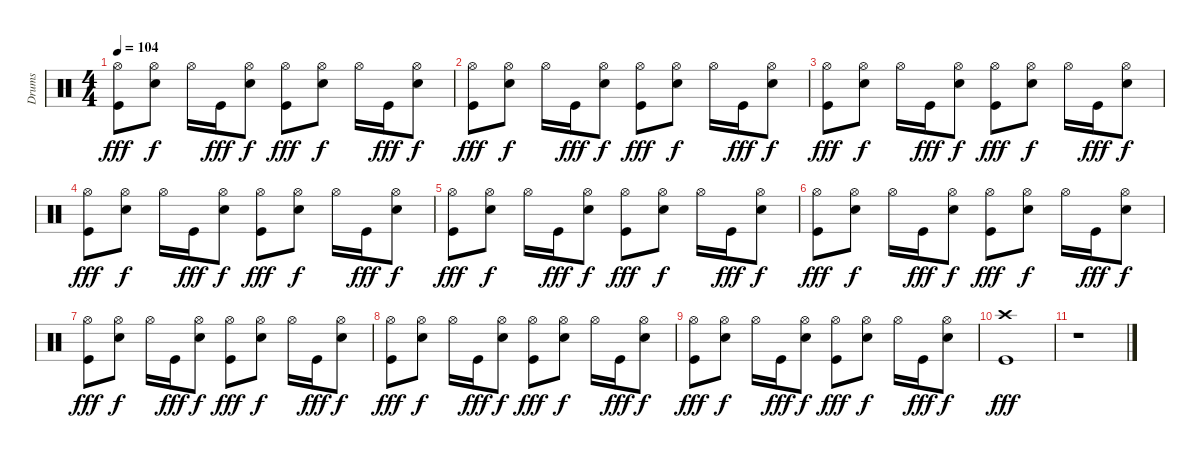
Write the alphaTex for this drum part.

\track ("Drums" "Drums") {instrument percussion}
\staff {score}
\articulation defaults
\ts (4 4)
\tempo 104
\clef neutral
\ks c
("Hi-Hat (open)" "Kick (hit)").8{dy fff} ("Hi-Hat (open)" "Snare (hit) 2").8{dy f} "Hi-Hat (open)".16 "Kick (hit)".16{dy fff} ("Hi-Hat (open)" "Snare (hit) 2").8{dy f} ("Hi-Hat (open)" "Kick (hit)").8{dy fff} ("Hi-Hat (open)" "Snare (hit) 2").8{dy f} "Hi-Hat (open)".16 "Kick (hit)".16{dy fff} ("Hi-Hat (open)" "Snare (hit) 2").8{dy f} |
("Hi-Hat (open)" "Kick (hit)").8{dy fff} ("Hi-Hat (open)" "Snare (hit) 2").8{dy f} "Hi-Hat (open)".16 "Kick (hit)".16{dy fff} ("Hi-Hat (open)" "Snare (hit) 2").8{dy f} ("Hi-Hat (open)" "Kick (hit)").8{dy fff} ("Hi-Hat (open)" "Snare (hit) 2").8{dy f} "Hi-Hat (open)".16 "Kick (hit)".16{dy fff} ("Hi-Hat (open)" "Snare (hit) 2").8{dy f} |
("Hi-Hat (open)" "Kick (hit)").8{dy fff} ("Hi-Hat (open)" "Snare (hit) 2").8{dy f} "Hi-Hat (open)".16 "Kick (hit)".16{dy fff} ("Hi-Hat (open)" "Snare (hit) 2").8{dy f} ("Hi-Hat (open)" "Kick (hit)").8{dy fff} ("Hi-Hat (open)" "Snare (hit) 2").8{dy f} "Hi-Hat (open)".16 "Kick (hit)".16{dy fff} ("Hi-Hat (open)" "Snare (hit) 2").8{dy f} |
("Hi-Hat (open)" "Kick (hit)").8{dy fff} ("Hi-Hat (open)" "Snare (hit) 2").8{dy f} "Hi-Hat (open)".16 "Kick (hit)".16{dy fff} ("Hi-Hat (open)" "Snare (hit) 2").8{dy f} ("Hi-Hat (open)" "Kick (hit)").8{dy fff} ("Hi-Hat (open)" "Snare (hit) 2").8{dy f} "Hi-Hat (open)".16 "Kick (hit)".16{dy fff} ("Hi-Hat (open)" "Snare (hit) 2").8{dy f} |
("Hi-Hat (open)" "Kick (hit)").8{dy fff} ("Hi-Hat (open)" "Snare (hit) 2").8{dy f} "Hi-Hat (open)".16 "Kick (hit)".16{dy fff} ("Hi-Hat (open)" "Snare (hit) 2").8{dy f} ("Hi-Hat (open)" "Kick (hit)").8{dy fff} ("Hi-Hat (open)" "Snare (hit) 2").8{dy f} "Hi-Hat (open)".16 "Kick (hit)".16{dy fff} ("Hi-Hat (open)" "Snare (hit) 2").8{dy f} |
("Hi-Hat (open)" "Kick (hit)").8{dy fff} ("Hi-Hat (open)" "Snare (hit) 2").8{dy f} "Hi-Hat (open)".16 "Kick (hit)".16{dy fff} ("Hi-Hat (open)" "Snare (hit) 2").8{dy f} ("Hi-Hat (open)" "Kick (hit)").8{dy fff} ("Hi-Hat (open)" "Snare (hit) 2").8{dy f} "Hi-Hat (open)".16 "Kick (hit)".16{dy fff} ("Hi-Hat (open)" "Snare (hit) 2").8{dy f} |
("Hi-Hat (open)" "Kick (hit)").8{dy fff} ("Hi-Hat (open)" "Snare (hit) 2").8{dy f} "Hi-Hat (open)".16 "Kick (hit)".16{dy fff} ("Hi-Hat (open)" "Snare (hit) 2").8{dy f} ("Hi-Hat (open)" "Kick (hit)").8{dy fff} ("Hi-Hat (open)" "Snare (hit) 2").8{dy f} "Hi-Hat (open)".16 "Kick (hit)".16{dy fff} ("Hi-Hat (open)" "Snare (hit) 2").8{dy f} |
("Hi-Hat (open)" "Kick (hit)").8{dy fff} ("Hi-Hat (open)" "Snare (hit) 2").8{dy f} "Hi-Hat (open)".16 "Kick (hit)".16{dy fff} ("Hi-Hat (open)" "Snare (hit) 2").8{dy f} ("Hi-Hat (open)" "Kick (hit)").8{dy fff} ("Hi-Hat (open)" "Snare (hit) 2").8{dy f} "Hi-Hat (open)".16 "Kick (hit)".16{dy fff} ("Hi-Hat (open)" "Snare (hit) 2").8{dy f} |
("Hi-Hat (open)" "Kick (hit)").8{dy fff} ("Hi-Hat (open)" "Snare (hit) 2").8{dy f} "Hi-Hat (open)".16 "Kick (hit)".16{dy fff} ("Hi-Hat (open)" "Snare (hit) 2").8{dy f} ("Hi-Hat (open)" "Kick (hit)").8{dy fff} ("Hi-Hat (open)" "Snare (hit) 2").8{dy f} "Hi-Hat (open)".16 "Kick (hit)".16{dy fff} ("Hi-Hat (open)" "Snare (hit) 2").8{dy f} |
("Crash high (hit)" "Kick (hit)").1{dy fff} |
r.1
